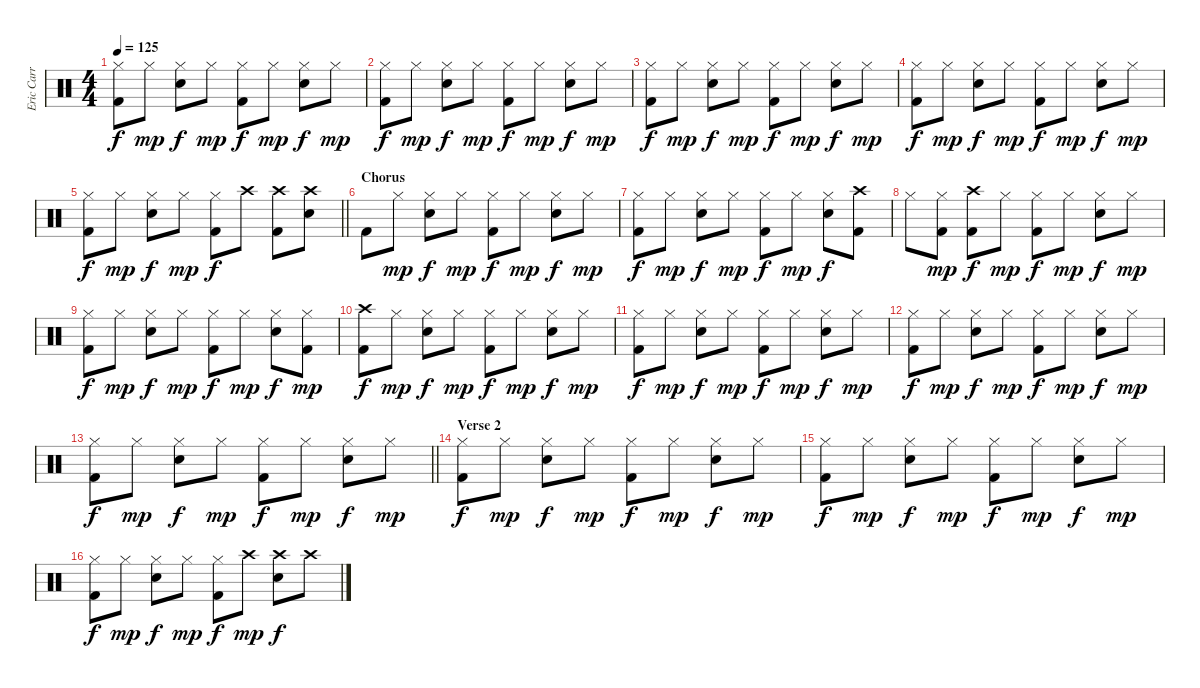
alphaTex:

\track ("Eric Carr" "Eric Carr") {instrument percussion}
\staff {score}
\articulation defaults
\ts (4 4)
\tempo 125
\clef neutral
\ks c
("Hi-Hat (closed)" "Kick (hit) 2").8{dy f} "Hi-Hat (closed)".8{dy mp} ("Hi-Hat (closed)" "Snare (hit) 2").8{dy f} "Hi-Hat (closed)".8{dy mp} ("Hi-Hat (closed)" "Kick (hit) 2").8{dy f} "Hi-Hat (closed)".8{dy mp} ("Hi-Hat (closed)" "Snare (hit) 2").8{dy f} "Hi-Hat (closed)".8{dy mp} |
("Hi-Hat (closed)" "Kick (hit) 2").8{dy f} "Hi-Hat (closed)".8{dy mp} ("Hi-Hat (closed)" "Snare (hit) 2").8{dy f} "Hi-Hat (closed)".8{dy mp} ("Hi-Hat (closed)" "Kick (hit) 2").8{dy f} "Hi-Hat (closed)".8{dy mp} ("Hi-Hat (closed)" "Snare (hit) 2").8{dy f} "Hi-Hat (closed)".8{dy mp} |
("Hi-Hat (closed)" "Kick (hit) 2").8{dy f} "Hi-Hat (closed)".8{dy mp} ("Hi-Hat (closed)" "Snare (hit) 2").8{dy f} "Hi-Hat (closed)".8{dy mp} ("Hi-Hat (closed)" "Kick (hit) 2").8{dy f} "Hi-Hat (closed)".8{dy mp} ("Hi-Hat (closed)" "Snare (hit) 2").8{dy f} "Hi-Hat (closed)".8{dy mp} |
("Hi-Hat (closed)" "Kick (hit) 2").8{dy f} "Hi-Hat (closed)".8{dy mp} ("Hi-Hat (closed)" "Snare (hit) 2").8{dy f} "Hi-Hat (closed)".8{dy mp} ("Hi-Hat (closed)" "Kick (hit) 2").8{dy f} "Hi-Hat (closed)".8{dy mp} ("Hi-Hat (closed)" "Snare (hit) 2").8{dy f} "Hi-Hat (closed)".8{dy mp} |
\barLineRight lightlight
("Hi-Hat (closed)" "Kick (hit) 2").8{dy f} "Hi-Hat (closed)".8{dy mp} ("Hi-Hat (closed)" "Snare (hit) 2").8{dy f} "Hi-Hat (closed)".8{dy mp} ("Hi-Hat (closed)" "Kick (hit) 2").8{dy f} "Crash high (hit)".8 ("Crash high (hit)" "Kick (hit) 2").8 ("Crash high (hit)" "Snare (hit) 2").8 |
\section ("" "Chorus")
"Kick (hit) 2".8 "Hi-Hat (closed)".8{dy mp} ("Hi-Hat (closed)" "Snare (hit) 2").8{dy f} "Hi-Hat (closed)".8{dy mp} ("Hi-Hat (closed)" "Kick (hit) 2").8{dy f} "Hi-Hat (closed)".8{dy mp} ("Hi-Hat (closed)" "Snare (hit) 2").8{dy f} "Hi-Hat (closed)".8{dy mp} |
("Hi-Hat (closed)" "Kick (hit) 2").8{dy f} "Hi-Hat (closed)".8{dy mp} ("Hi-Hat (closed)" "Snare (hit) 2").8{dy f} "Hi-Hat (closed)".8{dy mp} ("Hi-Hat (closed)" "Kick (hit) 2").8{dy f} "Hi-Hat (closed)".8{dy mp} ("Hi-Hat (closed)" "Snare (hit) 2").8{dy f} ("Crash high (hit)" "Kick (hit) 2").8 |
"Hi-Hat (closed)".8 ("Hi-Hat (closed)" "Kick (hit) 2").8{dy mp} ("Crash high (hit)" "Kick (hit) 2").8{dy f} "Hi-Hat (closed)".8{dy mp} ("Hi-Hat (closed)" "Kick (hit) 2").8{dy f} "Hi-Hat (closed)".8{dy mp} ("Hi-Hat (closed)" "Snare (hit) 2").8{dy f} "Hi-Hat (closed)".8{dy mp} |
("Hi-Hat (closed)" "Kick (hit) 2").8{dy f} "Hi-Hat (closed)".8{dy mp} ("Hi-Hat (closed)" "Snare (hit) 2").8{dy f} "Hi-Hat (closed)".8{dy mp} ("Hi-Hat (closed)" "Kick (hit) 2").8{dy f} "Hi-Hat (closed)".8{dy mp} ("Hi-Hat (closed)" "Snare (hit) 2").8{dy f} ("Hi-Hat (closed)" "Kick (hit) 2").8{dy mp} |
("Crash high (hit)" "Kick (hit) 2").8{dy f} "Hi-Hat (closed)".8{dy mp} ("Hi-Hat (closed)" "Snare (hit) 2").8{dy f} "Hi-Hat (closed)".8{dy mp} ("Hi-Hat (closed)" "Kick (hit) 2").8{dy f} "Hi-Hat (closed)".8{dy mp} ("Hi-Hat (closed)" "Snare (hit) 2").8{dy f} "Hi-Hat (closed)".8{dy mp} |
("Hi-Hat (closed)" "Kick (hit) 2").8{dy f} "Hi-Hat (closed)".8{dy mp} ("Hi-Hat (closed)" "Snare (hit) 2").8{dy f} "Hi-Hat (closed)".8{dy mp} ("Hi-Hat (closed)" "Kick (hit) 2").8{dy f} "Hi-Hat (closed)".8{dy mp} ("Hi-Hat (closed)" "Snare (hit) 2").8{dy f} "Hi-Hat (closed)".8{dy mp} |
("Hi-Hat (closed)" "Kick (hit) 2").8{dy f} "Hi-Hat (closed)".8{dy mp} ("Hi-Hat (closed)" "Snare (hit) 2").8{dy f} "Hi-Hat (closed)".8{dy mp} ("Hi-Hat (closed)" "Kick (hit) 2").8{dy f} "Hi-Hat (closed)".8{dy mp} ("Hi-Hat (closed)" "Snare (hit) 2").8{dy f} "Hi-Hat (closed)".8{dy mp} |
\barLineRight lightlight
("Hi-Hat (closed)" "Kick (hit) 2").8{dy f} "Hi-Hat (closed)".8{dy mp} ("Hi-Hat (closed)" "Snare (hit) 2").8{dy f} "Hi-Hat (closed)".8{dy mp} ("Hi-Hat (closed)" "Kick (hit) 2").8{dy f} "Hi-Hat (closed)".8{dy mp} ("Hi-Hat (closed)" "Snare (hit) 2").8{dy f} "Hi-Hat (closed)".8{dy mp} |
\section ("" "Verse 2")
("Hi-Hat (closed)" "Kick (hit) 2").8{dy f} "Hi-Hat (closed)".8{dy mp} ("Hi-Hat (closed)" "Snare (hit) 2").8{dy f} "Hi-Hat (closed)".8{dy mp} ("Hi-Hat (closed)" "Kick (hit) 2").8{dy f} "Hi-Hat (closed)".8{dy mp} ("Hi-Hat (closed)" "Snare (hit) 2").8{dy f} "Hi-Hat (closed)".8{dy mp} |
("Hi-Hat (closed)" "Kick (hit) 2").8{dy f} "Hi-Hat (closed)".8{dy mp} ("Hi-Hat (closed)" "Snare (hit) 2").8{dy f} "Hi-Hat (closed)".8{dy mp} ("Hi-Hat (closed)" "Kick (hit) 2").8{dy f} "Hi-Hat (closed)".8{dy mp} ("Hi-Hat (closed)" "Snare (hit) 2").8{dy f} "Hi-Hat (closed)".8{dy mp} |
("Hi-Hat (closed)" "Kick (hit) 2").8{dy f} "Hi-Hat (closed)".8{dy mp} ("Hi-Hat (closed)" "Snare (hit) 2").8{dy f} "Hi-Hat (closed)".8{dy mp} ("Hi-Hat (closed)" "Kick (hit) 2").8{dy f} "Crash high (hit)".8{dy mp} ("Crash high (hit)" "Snare (hit) 2").8{dy f} "Crash high (hit)".8
